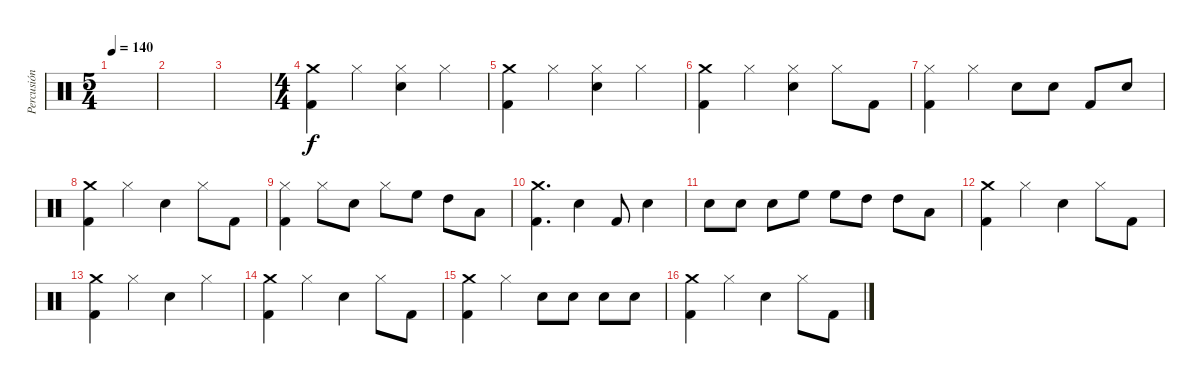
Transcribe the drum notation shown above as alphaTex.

\track ("Percusión" "Percusión") {instrument percussion}
\staff {score}
\articulation defaults
\ts (5 4)
\tempo 140
\clef neutral
\ks c
|
|
|
\ts (4 4)
("Kick (hit) 2" "Crash medium (hit)").4 "Hi-Hat (closed)".4 ("Electric Snare (hit)" "Hi-Hat (closed)").4 "Hi-Hat (closed)".4 |
("Kick (hit) 2" "Crash medium (hit)").4 "Hi-Hat (closed)".4 ("Electric Snare (hit)" "Hi-Hat (closed)").4 "Hi-Hat (closed)".4 |
("Kick (hit) 2" "Crash medium (hit)").4 "Hi-Hat (closed)".4 ("Electric Snare (hit)" "Hi-Hat (closed)").4 "Hi-Hat (closed)".8 "Kick (hit) 2".8 |
("Kick (hit) 2" "Hi-Hat (closed)").4 "Hi-Hat (closed)".4 "Electric Snare (hit)".8 "Electric Snare (hit)".8 "Kick (hit) 2".8 "Electric Snare (hit)".8 |
("Kick (hit) 2" "Crash medium (hit)").4 "Hi-Hat (closed)".4 "Electric Snare (hit)".4 "Hi-Hat (closed)".8 "Kick (hit) 2".8 |
("Kick (hit) 2" "Hi-Hat (closed)").4 "Hi-Hat (closed)".8 "Electric Snare (hit)".8 "Hi-Hat (closed)".8 "High Floor Tom (hit)".8 "High Tom (hit)".8 "Low Tom (hit)".8 |
("Kick (hit) 2" "Crash medium (hit)").4{d} "Electric Snare (hit)".4 "Kick (hit) 2".8 "Electric Snare (hit)".4 |
"Electric Snare (hit)".8 "Electric Snare (hit)".8 "Electric Snare (hit)".8 "High Floor Tom (hit)".8 "High Floor Tom (hit)".8 "High Tom (hit)".8 "High Tom (hit)".8 "Low Tom (hit)".8 |
("Kick (hit) 2" "Crash medium (hit)").4 "Hi-Hat (closed)".4 "Electric Snare (hit)".4 "Hi-Hat (closed)".8 "Kick (hit) 2".8 |
("Kick (hit) 2" "Crash medium (hit)").4 "Hi-Hat (closed)".4 "Electric Snare (hit)".4 "Hi-Hat (closed)".4 |
("Kick (hit) 2" "Crash medium (hit)").4 "Hi-Hat (closed)".4 "Electric Snare (hit)".4 "Hi-Hat (closed)".8 "Kick (hit) 2".8 |
("Kick (hit) 2" "Crash medium (hit)").4 "Hi-Hat (closed)".4 "Electric Snare (hit)".8 "Electric Snare (hit)".8 "Electric Snare (hit)".8 "Electric Snare (hit)".8 |
("Kick (hit) 2" "Crash medium (hit)").4 "Hi-Hat (closed)".4 "Electric Snare (hit)".4 "Hi-Hat (closed)".8 "Kick (hit) 2".8
